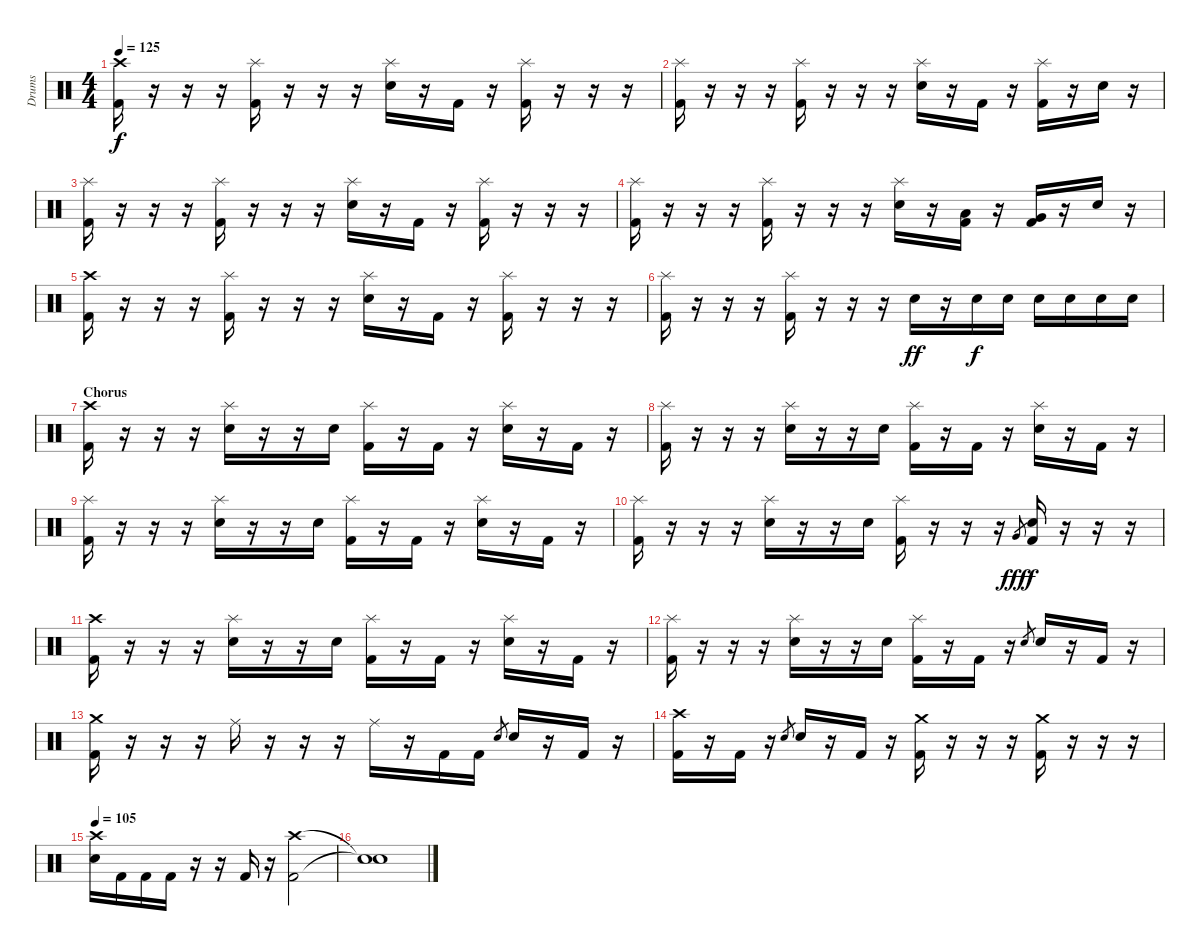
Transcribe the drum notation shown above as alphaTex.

\track ("Drums" "Drums") {instrument percussion}
\staff {score}
\articulation defaults
\ts (4 4)
\tempo 125
\clef neutral
\ks c
("Crash high (hit)" "Kick (hit) 2").16{dy f} r.16 r.16 r.16 ("Splash (hit)" "Kick (hit) 2").16 r.16 r.16 r.16 ("Splash (hit)" "Electric Snare (hit)").16 r.16 "Kick (hit) 2".16 r.16 ("Splash (hit)" "Kick (hit) 2").16 r.16 r.16 r.16 |
("Splash (hit)" "Kick (hit) 2").16 r.16 r.16 r.16 ("Splash (hit)" "Kick (hit) 2").16 r.16 r.16 r.16 ("Splash (hit)" "Electric Snare (hit)").16 r.16 "Kick (hit) 2".16 r.16 ("Splash (hit)" "Kick (hit) 2").16 r.16 "Electric Snare (hit)".16 r.16 |
("Splash (hit)" "Kick (hit) 2").16 r.16 r.16 r.16 ("Splash (hit)" "Kick (hit) 2").16 r.16 r.16 r.16 ("Splash (hit)" "Electric Snare (hit)").16 r.16 "Kick (hit) 2".16 r.16 ("Splash (hit)" "Kick (hit) 2").16 r.16 r.16 r.16 |
("Splash (hit)" "Kick (hit) 2").16 r.16 r.16 r.16 ("Splash (hit)" "Kick (hit) 2").16 r.16 r.16 r.16 ("Splash (hit)" "Electric Snare (hit)").16 r.16 ("Low Tom (hit)" "Kick (hit) 2").16 r.16 ("Very Low Tom (hit)" "Kick (hit) 2").16 r.16 "Electric Snare (hit)".16 r.16 |
("Crash high (hit)" "Kick (hit) 2").16 r.16 r.16 r.16 ("Splash (hit)" "Kick (hit) 2").16 r.16 r.16 r.16 ("Splash (hit)" "Electric Snare (hit)").16 r.16 "Kick (hit) 2".16 r.16 ("Splash (hit)" "Kick (hit) 2").16 r.16 r.16 r.16 |
("Splash (hit)" "Kick (hit) 2").16 r.16 r.16 r.16 ("Splash (hit)" "Kick (hit) 2").16 r.16 r.16 r.16 "Electric Snare (hit)".16{dy ff} r.16 "Electric Snare (hit)".16{dy f} "Electric Snare (hit)".16 "Electric Snare (hit)".16 "Electric Snare (hit)".16 "Electric Snare (hit)".16 "Electric Snare (hit)".16 |
\section ("" "Chorus")
("Crash high (hit)" "Kick (hit) 2").16 r.16 r.16 r.16 ("Splash (hit)" "Electric Snare (hit)").16 r.16 r.16 "Electric Snare (hit)".16 ("Splash (hit)" "Kick (hit) 2").16 r.16 "Kick (hit) 2".16 r.16 ("Splash (hit)" "Electric Snare (hit)").16 r.16 "Kick (hit) 2".16 r.16 |
("Splash (hit)" "Kick (hit) 2").16 r.16 r.16 r.16 ("Splash (hit)" "Electric Snare (hit)").16 r.16 r.16 "Electric Snare (hit)".16 ("Splash (hit)" "Kick (hit) 2").16 r.16 "Kick (hit) 2".16 r.16 ("Splash (hit)" "Electric Snare (hit)").16 r.16 "Kick (hit) 2".16 r.16 |
("Splash (hit)" "Kick (hit) 2").16 r.16 r.16 r.16 ("Splash (hit)" "Electric Snare (hit)").16 r.16 r.16 "Electric Snare (hit)".16 ("Splash (hit)" "Kick (hit) 2").16 r.16 "Kick (hit) 2".16 r.16 ("Splash (hit)" "Electric Snare (hit)").16 r.16 "Kick (hit) 2".16 r.16 |
("Splash (hit)" "Kick (hit) 2").16 r.16 r.16 r.16 ("Splash (hit)" "Electric Snare (hit)").16 r.16 r.16 "Electric Snare (hit)".16 ("Splash (hit)" "Kick (hit) 2").16 r.16 r.16 r.16 "Very Low Tom (hit)".8{gr dy fff} ("Electric Snare (hit)" "Kick (hit) 2").16{dy f} r.16 r.16 r.16 |
("Crash high (hit)" "Kick (hit) 2").16 r.16 r.16 r.16 ("Splash (hit)" "Electric Snare (hit)").16 r.16 r.16 "Electric Snare (hit)".16 ("Splash (hit)" "Kick (hit) 2").16 r.16 "Kick (hit) 2".16 r.16 ("Splash (hit)" "Electric Snare (hit)").16 r.16 "Kick (hit) 2".16 r.16 |
("Splash (hit)" "Kick (hit) 2").16 r.16 r.16 r.16 ("Splash (hit)" "Electric Snare (hit)").16 r.16 r.16 "Electric Snare (hit)".16 ("Splash (hit)" "Kick (hit) 2").16 r.16 "Kick (hit) 2".16 r.16 "Electric Snare (hit)".8{gr} "Electric Snare (hit)".16 r.16 "Kick (hit) 2".16 r.16 |
("Crash medium (hit)" "Kick (hit) 2").16 r.16 r.16 r.16 "Ride (middle)".16 r.16 r.16 r.16 "Ride (middle)".16 r.16 "Kick (hit) 2".16 "Kick (hit) 2".16 "Electric Snare (hit)".8{gr} "Electric Snare (hit)".16 r.16 "Kick (hit) 2".16 r.16 |
("Crash high (hit)" "Kick (hit) 2").16 r.16 "Kick (hit) 2".16 r.16 "Electric Snare (hit)".8{gr} "Electric Snare (hit)".16 r.16 "Kick (hit) 2".16 r.16 ("Crash medium (hit)" "Kick (hit) 2").16 r.16 r.16 r.16 ("Crash medium (hit)" "Kick (hit) 2").16 r.16 r.16 r.16 |
\tempo 105
("Crash high (hit)" "Electric Snare (hit)").16 "Kick (hit) 2".16 "Kick (hit) 2".16 "Kick (hit) 2".16 r.16 r.16 "Kick (hit) 2".16 r.16 ("Crash high (hit)" "Kick (hit) 2").2 |
("Snare (hit)"{t} "Snare (hit)"{t}).1
